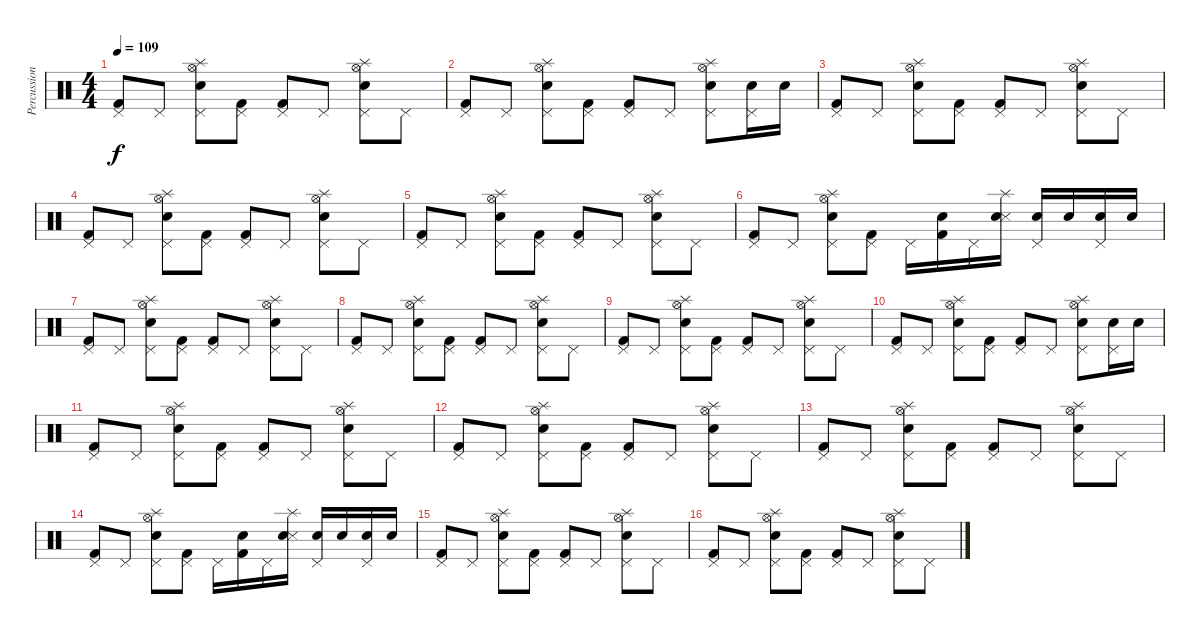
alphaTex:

\track ("Percussion" "Percussion") {instrument percussion}
\staff {score}
\articulation defaults
\ts (4 4)
\tempo 109
\clef neutral
\ks c
("Pedal Hi-Hat (hit)" "Kick (hit) 2").8{dy f} "Pedal Hi-Hat (hit)".8 ("Pedal Hi-Hat (hit)" "Splash (hit)" "Electric Snare (hit)" "Hi-Hat (open)").8 ("Pedal Hi-Hat (hit)" "Kick (hit) 2").8 ("Pedal Hi-Hat (hit)" "Kick (hit) 2").8 "Pedal Hi-Hat (hit)".8 ("Pedal Hi-Hat (hit)" "Splash (hit)" "Electric Snare (hit)" "Hi-Hat (open)").8 "Pedal Hi-Hat (hit)".8 |
("Pedal Hi-Hat (hit)" "Kick (hit) 2").8 "Pedal Hi-Hat (hit)".8 ("Pedal Hi-Hat (hit)" "Splash (hit)" "Electric Snare (hit)" "Hi-Hat (open)").8 ("Pedal Hi-Hat (hit)" "Kick (hit) 2").8 ("Pedal Hi-Hat (hit)" "Kick (hit) 2").8 "Pedal Hi-Hat (hit)".8 ("Pedal Hi-Hat (hit)" "Splash (hit)" "Electric Snare (hit)" "Hi-Hat (open)").8 ("Pedal Hi-Hat (hit)" "Electric Snare (hit)").16 "Electric Snare (hit)".16 |
("Pedal Hi-Hat (hit)" "Kick (hit) 2").8 "Pedal Hi-Hat (hit)".8 ("Pedal Hi-Hat (hit)" "Splash (hit)" "Electric Snare (hit)" "Hi-Hat (open)").8 ("Pedal Hi-Hat (hit)" "Kick (hit) 2").8 ("Pedal Hi-Hat (hit)" "Kick (hit) 2").8 "Pedal Hi-Hat (hit)".8 ("Pedal Hi-Hat (hit)" "Splash (hit)" "Electric Snare (hit)" "Hi-Hat (open)").8 "Pedal Hi-Hat (hit)".8 |
("Pedal Hi-Hat (hit)" "Kick (hit) 2").8 "Pedal Hi-Hat (hit)".8 ("Pedal Hi-Hat (hit)" "Splash (hit)" "Electric Snare (hit)" "Hi-Hat (open)").8 ("Pedal Hi-Hat (hit)" "Kick (hit) 2").8 ("Pedal Hi-Hat (hit)" "Kick (hit) 2").8 "Pedal Hi-Hat (hit)".8 ("Pedal Hi-Hat (hit)" "Splash (hit)" "Electric Snare (hit)" "Hi-Hat (open)").8 "Pedal Hi-Hat (hit)".8 |
("Pedal Hi-Hat (hit)" "Kick (hit) 2").8 "Pedal Hi-Hat (hit)".8 ("Pedal Hi-Hat (hit)" "Splash (hit)" "Electric Snare (hit)" "Hi-Hat (open)").8 ("Pedal Hi-Hat (hit)" "Kick (hit) 2").8 ("Pedal Hi-Hat (hit)" "Kick (hit) 2").8 "Pedal Hi-Hat (hit)".8 ("Pedal Hi-Hat (hit)" "Splash (hit)" "Electric Snare (hit)" "Hi-Hat (open)").8 "Pedal Hi-Hat (hit)".8 |
("Pedal Hi-Hat (hit)" "Kick (hit) 2").8 "Pedal Hi-Hat (hit)".8 ("Pedal Hi-Hat (hit)" "Splash (hit)" "Electric Snare (hit)" "Hi-Hat (open)").8 ("Pedal Hi-Hat (hit)" "Kick (hit) 2").8 "Pedal Hi-Hat (hit)".16 ("Electric Snare (hit)" "Kick (hit) 2").16 "Pedal Hi-Hat (hit)".16 ("Splash (hit)" "Snare (side stick) 3" "Electric Snare (hit)").16 ("Pedal Hi-Hat (hit)" "Electric Snare (hit)").16 "Electric Snare (hit)".16 ("Pedal Hi-Hat (hit)" "Electric Snare (hit)").16 "Electric Snare (hit)".16 |
("Pedal Hi-Hat (hit)" "Kick (hit) 2").8 "Pedal Hi-Hat (hit)".8 ("Pedal Hi-Hat (hit)" "Splash (hit)" "Electric Snare (hit)" "Hi-Hat (open)").8 ("Pedal Hi-Hat (hit)" "Kick (hit) 2").8 ("Pedal Hi-Hat (hit)" "Kick (hit) 2").8 "Pedal Hi-Hat (hit)".8 ("Pedal Hi-Hat (hit)" "Splash (hit)" "Electric Snare (hit)" "Hi-Hat (open)").8 "Pedal Hi-Hat (hit)".8 |
("Pedal Hi-Hat (hit)" "Kick (hit) 2").8 "Pedal Hi-Hat (hit)".8 ("Pedal Hi-Hat (hit)" "Splash (hit)" "Electric Snare (hit)" "Hi-Hat (open)").8 ("Pedal Hi-Hat (hit)" "Kick (hit) 2").8 ("Pedal Hi-Hat (hit)" "Kick (hit) 2").8 "Pedal Hi-Hat (hit)".8 ("Pedal Hi-Hat (hit)" "Splash (hit)" "Electric Snare (hit)" "Hi-Hat (open)").8 "Pedal Hi-Hat (hit)".8 |
("Pedal Hi-Hat (hit)" "Kick (hit) 2").8 "Pedal Hi-Hat (hit)".8 ("Pedal Hi-Hat (hit)" "Splash (hit)" "Electric Snare (hit)" "Hi-Hat (open)").8 ("Pedal Hi-Hat (hit)" "Kick (hit) 2").8 ("Pedal Hi-Hat (hit)" "Kick (hit) 2").8 "Pedal Hi-Hat (hit)".8 ("Pedal Hi-Hat (hit)" "Splash (hit)" "Electric Snare (hit)" "Hi-Hat (open)").8 "Pedal Hi-Hat (hit)".8 |
("Pedal Hi-Hat (hit)" "Kick (hit) 2").8 "Pedal Hi-Hat (hit)".8 ("Pedal Hi-Hat (hit)" "Splash (hit)" "Electric Snare (hit)" "Hi-Hat (open)").8 ("Pedal Hi-Hat (hit)" "Kick (hit) 2").8 ("Pedal Hi-Hat (hit)" "Kick (hit) 2").8 "Pedal Hi-Hat (hit)".8 ("Pedal Hi-Hat (hit)" "Splash (hit)" "Electric Snare (hit)" "Hi-Hat (open)").8 ("Pedal Hi-Hat (hit)" "Electric Snare (hit)").16 "Electric Snare (hit)".16 |
("Pedal Hi-Hat (hit)" "Kick (hit) 2").8 "Pedal Hi-Hat (hit)".8 ("Pedal Hi-Hat (hit)" "Splash (hit)" "Electric Snare (hit)" "Hi-Hat (open)").8 ("Pedal Hi-Hat (hit)" "Kick (hit) 2").8 ("Pedal Hi-Hat (hit)" "Kick (hit) 2").8 "Pedal Hi-Hat (hit)".8 ("Pedal Hi-Hat (hit)" "Splash (hit)" "Electric Snare (hit)" "Hi-Hat (open)").8 "Pedal Hi-Hat (hit)".8 |
("Pedal Hi-Hat (hit)" "Kick (hit) 2").8 "Pedal Hi-Hat (hit)".8 ("Pedal Hi-Hat (hit)" "Splash (hit)" "Electric Snare (hit)" "Hi-Hat (open)").8 ("Pedal Hi-Hat (hit)" "Kick (hit) 2").8 ("Pedal Hi-Hat (hit)" "Kick (hit) 2").8 "Pedal Hi-Hat (hit)".8 ("Pedal Hi-Hat (hit)" "Splash (hit)" "Electric Snare (hit)" "Hi-Hat (open)").8 "Pedal Hi-Hat (hit)".8 |
("Pedal Hi-Hat (hit)" "Kick (hit) 2").8 "Pedal Hi-Hat (hit)".8 ("Pedal Hi-Hat (hit)" "Splash (hit)" "Electric Snare (hit)" "Hi-Hat (open)").8 ("Pedal Hi-Hat (hit)" "Kick (hit) 2").8 ("Pedal Hi-Hat (hit)" "Kick (hit) 2").8 "Pedal Hi-Hat (hit)".8 ("Pedal Hi-Hat (hit)" "Splash (hit)" "Electric Snare (hit)" "Hi-Hat (open)").8 "Pedal Hi-Hat (hit)".8 |
("Pedal Hi-Hat (hit)" "Kick (hit) 2").8 "Pedal Hi-Hat (hit)".8 ("Pedal Hi-Hat (hit)" "Splash (hit)" "Electric Snare (hit)" "Hi-Hat (open)").8 ("Pedal Hi-Hat (hit)" "Kick (hit) 2").8 "Pedal Hi-Hat (hit)".16 ("Electric Snare (hit)" "Kick (hit) 2").16 "Pedal Hi-Hat (hit)".16 ("Splash (hit)" "Snare (side stick) 3" "Electric Snare (hit)").16 ("Pedal Hi-Hat (hit)" "Electric Snare (hit)").16 "Electric Snare (hit)".16 ("Pedal Hi-Hat (hit)" "Electric Snare (hit)").16 "Electric Snare (hit)".16 |
("Pedal Hi-Hat (hit)" "Kick (hit) 2").8 "Pedal Hi-Hat (hit)".8 ("Pedal Hi-Hat (hit)" "Splash (hit)" "Electric Snare (hit)" "Hi-Hat (open)").8 ("Pedal Hi-Hat (hit)" "Kick (hit) 2").8 ("Pedal Hi-Hat (hit)" "Kick (hit) 2").8 "Pedal Hi-Hat (hit)".8 ("Pedal Hi-Hat (hit)" "Splash (hit)" "Electric Snare (hit)" "Hi-Hat (open)").8 "Pedal Hi-Hat (hit)".8 |
("Pedal Hi-Hat (hit)" "Kick (hit) 2").8 "Pedal Hi-Hat (hit)".8 ("Pedal Hi-Hat (hit)" "Splash (hit)" "Electric Snare (hit)" "Hi-Hat (open)").8 ("Pedal Hi-Hat (hit)" "Kick (hit) 2").8 ("Pedal Hi-Hat (hit)" "Kick (hit) 2").8 "Pedal Hi-Hat (hit)".8 ("Pedal Hi-Hat (hit)" "Splash (hit)" "Electric Snare (hit)" "Hi-Hat (open)").8 "Pedal Hi-Hat (hit)".8
